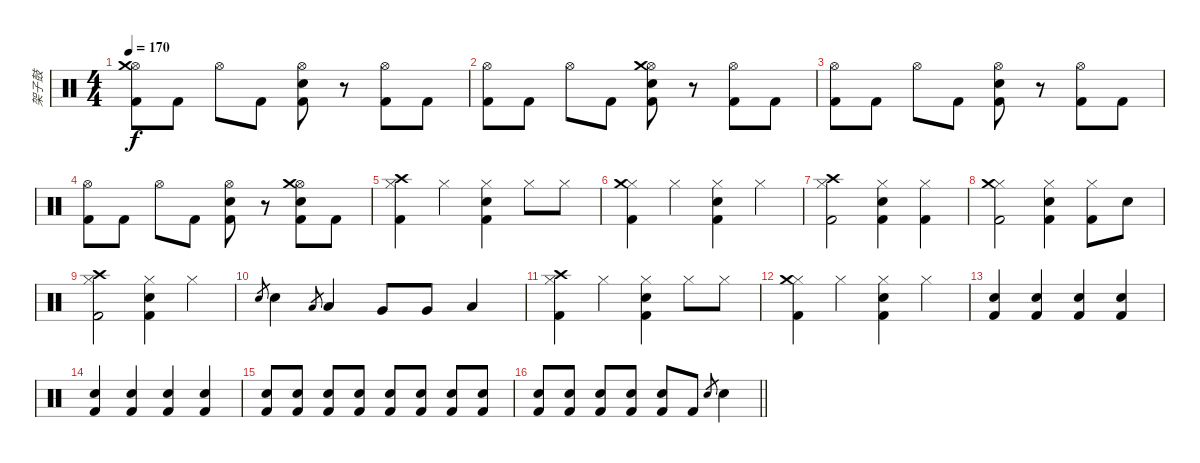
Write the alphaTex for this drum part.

\track ("架子鼓" "架子鼓") {instrument percussion}
\staff {score}
\articulation defaults
\ts (4 4)
\tempo 170
\clef neutral
\ks c
("Hi-Hat (open)" "Kick (hit) 2" "Crash medium (hit)").8{dy f} "Kick (hit) 2".8 "Hi-Hat (open)".8 "Kick (hit) 2".8 ("Hi-Hat (open)" "Snare (hit) 2" "Kick (hit) 2").8 r.8 ("Hi-Hat (open)" "Kick (hit) 2").8 "Kick (hit) 2".8 |
("Hi-Hat (open)" "Kick (hit) 2").8 "Kick (hit) 2".8 "Hi-Hat (open)".8 "Kick (hit) 2".8 ("Hi-Hat (open)" "Snare (hit) 2" "Kick (hit) 2" "Crash medium (hit)").8 r.8 ("Hi-Hat (open)" "Kick (hit) 2").8 "Kick (hit) 2".8 |
("Hi-Hat (open)" "Kick (hit) 2").8 "Kick (hit) 2".8 "Hi-Hat (open)".8 "Kick (hit) 2".8 ("Hi-Hat (open)" "Snare (hit) 2" "Kick (hit) 2").8 r.8 ("Hi-Hat (open)" "Kick (hit) 2").8 "Kick (hit) 2".8 |
("Hi-Hat (open)" "Kick (hit) 2").8 "Kick (hit) 2".8 "Hi-Hat (open)".8 "Kick (hit) 2".8 ("Hi-Hat (open)" "Snare (hit) 2" "Kick (hit) 2").8 r.8 ("Hi-Hat (open)" "Snare (hit) 2" "Kick (hit) 2" "Crash medium (hit)").8 "Kick (hit) 2".8 |
("Hi-Hat (closed)" "Kick (hit) 2" "Crash high (hit)").4 "Hi-Hat (closed)".4 ("Hi-Hat (closed)" "Snare (hit) 2" "Kick (hit) 2").4 "Hi-Hat (closed)".8 "Hi-Hat (closed)".8 |
("Hi-Hat (closed)" "Kick (hit) 2" "Crash medium (hit)").4 "Hi-Hat (closed)".4 ("Hi-Hat (closed)" "Snare (hit) 2" "Kick (hit) 2").4 "Hi-Hat (closed)".4 |
("Hi-Hat (closed)" "Kick (hit) 2" "Crash high (hit)").2 ("Hi-Hat (closed)" "Snare (hit) 2" "Kick (hit) 2").4 ("Hi-Hat (closed)" "Kick (hit) 2").4 |
("Hi-Hat (closed)" "Kick (hit) 2" "Crash medium (hit)").2 ("Hi-Hat (closed)" "Snare (hit) 2" "Kick (hit) 2").4 ("Hi-Hat (closed)" "Kick (hit) 2").8 "Snare (hit) 2".8 |
("Hi-Hat (closed)" "Kick (hit) 2" "Crash high (hit)").2 ("Hi-Hat (closed)" "Snare (hit) 2" "Kick (hit) 2").4 "Hi-Hat (closed)".4 |
"Snare (hit) 2".8{gr} "Snare (hit) 2".4 "Low Tom (hit)".8{gr} "Low Tom (hit)".4 "Very Low Tom (hit)".8 "Very Low Tom (hit)".8 "Low Floor Tom (hit)".4 |
("Hi-Hat (closed)" "Kick (hit) 2" "Crash high (hit)").4 "Hi-Hat (closed)".4 ("Hi-Hat (closed)" "Snare (hit) 2" "Kick (hit) 2").4 "Hi-Hat (closed)".8 "Hi-Hat (closed)".8 |
("Hi-Hat (closed)" "Kick (hit) 2" "Crash medium (hit)").4 "Hi-Hat (closed)".4 ("Hi-Hat (closed)" "Snare (hit) 2" "Kick (hit) 2").4 "Hi-Hat (closed)".4 |
("Snare (hit) 2" "Kick (hit) 2").4 ("Snare (hit) 2" "Kick (hit) 2").4 ("Snare (hit) 2" "Kick (hit) 2").4 ("Snare (hit) 2" "Kick (hit) 2").4 |
("Snare (hit) 2" "Kick (hit) 2").4 ("Snare (hit) 2" "Kick (hit) 2").4 ("Snare (hit) 2" "Kick (hit) 2").4 ("Snare (hit) 2" "Kick (hit) 2").4 |
("Snare (hit) 2" "Kick (hit) 2").8 ("Snare (hit) 2" "Kick (hit) 2").8 ("Snare (hit) 2" "Kick (hit) 2").8 ("Snare (hit) 2" "Kick (hit) 2").8 ("Snare (hit) 2" "Kick (hit) 2").8 ("Snare (hit) 2" "Kick (hit) 2").8 ("Snare (hit) 2" "Kick (hit) 2").8 ("Snare (hit) 2" "Kick (hit) 2").8 |
\barLineRight lightlight
("Snare (hit) 2" "Kick (hit) 2").8 ("Snare (hit) 2" "Kick (hit) 2").8 ("Snare (hit) 2" "Kick (hit) 2").8 ("Snare (hit) 2" "Kick (hit) 2").8 ("Snare (hit) 2" "Kick (hit) 2").8 "Kick (hit) 2".8 "Snare (hit) 2".8{gr} "Snare (hit) 2".4
